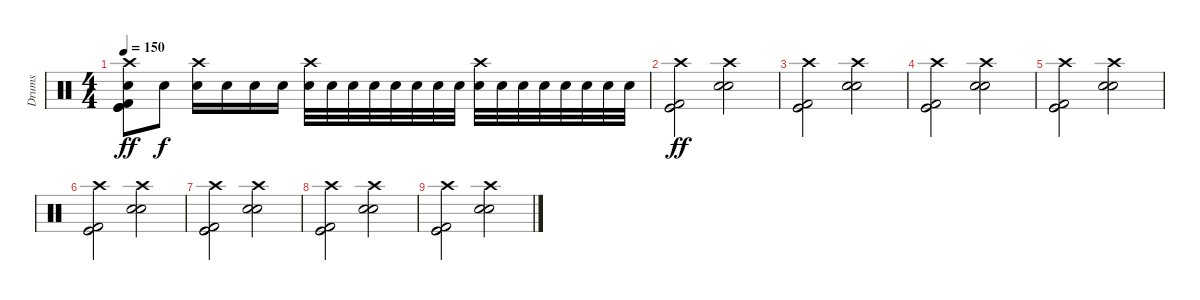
\track ("Drums" "Drums") {instrument percussion}
\staff {score}
\articulation defaults
\ts (4 4)
\tempo 150
\clef neutral
\ks c
("Crash high (hit)" "Kick (hit) 2" "Electric Snare (hit)" "Kick (hit)" "Kick (hit)").8{dy ff} "Electric Snare (hit)".8{dy f} ("Crash high (hit)" "Electric Snare (hit)").16 "Electric Snare (hit)".16 "Electric Snare (hit)".16 "Electric Snare (hit)".16 ("Crash high (hit)" "Electric Snare (hit)").32 "Electric Snare (hit)".32 "Electric Snare (hit)".32 "Electric Snare (hit)".32 "Electric Snare (hit)".32 "Electric Snare (hit)".32 "Electric Snare (hit)".32 "Electric Snare (hit)".32 ("Crash high (hit)" "Electric Snare (hit)").32 "Electric Snare (hit)".32 "Electric Snare (hit)".32 "Electric Snare (hit)".32 "Electric Snare (hit)".32 "Electric Snare (hit)".32 "Electric Snare (hit)".32 "Electric Snare (hit)".32 |
("Kick (hit) 2" "Crash high (hit)" "Kick (hit)" "Kick (hit)").2{dy ff} ("Crash high (hit)" "Electric Snare (hit)" "Electric Snare (hit)").2 |
("Kick (hit) 2" "Crash high (hit)" "Kick (hit)" "Kick (hit)").2 ("Crash high (hit)" "Electric Snare (hit)" "Electric Snare (hit)").2 |
("Kick (hit) 2" "Crash high (hit)" "Kick (hit)" "Kick (hit)").2 ("Crash high (hit)" "Electric Snare (hit)" "Electric Snare (hit)").2 |
("Kick (hit) 2" "Crash high (hit)" "Kick (hit)" "Kick (hit)").2 ("Crash high (hit)" "Electric Snare (hit)" "Electric Snare (hit)").2 |
("Kick (hit) 2" "Crash high (hit)" "Kick (hit)" "Kick (hit)").2 ("Crash high (hit)" "Electric Snare (hit)" "Electric Snare (hit)").2 |
("Kick (hit) 2" "Crash high (hit)" "Kick (hit)" "Kick (hit)").2 ("Crash high (hit)" "Electric Snare (hit)" "Electric Snare (hit)").2 |
("Kick (hit) 2" "Crash high (hit)" "Kick (hit)" "Kick (hit)").2 ("Crash high (hit)" "Electric Snare (hit)" "Electric Snare (hit)").2 |
("Kick (hit) 2" "Crash high (hit)" "Kick (hit)" "Kick (hit)").2 ("Crash high (hit)" "Electric Snare (hit)" "Electric Snare (hit)").2
